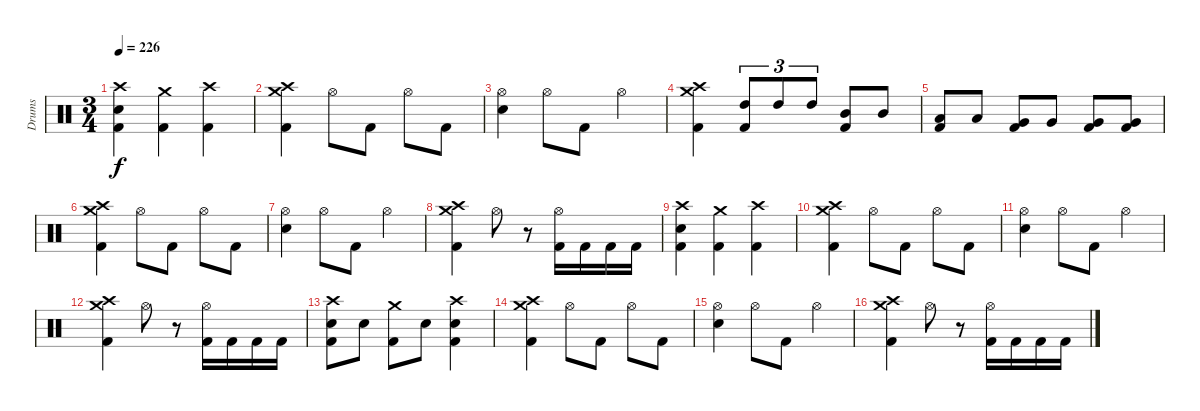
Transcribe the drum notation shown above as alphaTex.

\track ("Drums" "Drums") {instrument percussion}
\staff {score}
\articulation defaults
\ts (3 4)
\tempo 226
\clef neutral
\ks c
("Crash high (hit)" "Electric Snare (hit)" "Kick (hit) 2").4{dy f} ("Crash medium (hit)" "Kick (hit) 2").4 ("Crash high (hit)" "Kick (hit) 2").4 |
("Crash high (hit)" "Crash medium (hit)" "Kick (hit) 2").4 "Hi-Hat (open)".8 "Kick (hit) 2".8 "Hi-Hat (open)".8 "Kick (hit) 2".8 |
("Hi-Hat (open)" "Electric Snare (hit)").4 "Hi-Hat (open)".8 "Kick (hit) 2".8 "Hi-Hat (open)".4 |
("Crash high (hit)" "Crash medium (hit)" "Kick (hit) 2").4 ("High Tom (hit)" "Kick (hit) 2").8{tu (3 2)} "High Tom (hit)".8{tu (3 2)} "High Tom (hit)".8{tu (3 2)} ("Mid Tom (hit)" "Kick (hit) 2").8 "Mid Tom (hit)".8 |
("Low Tom (hit)" "Kick (hit) 2").8 "Low Tom (hit)".8 ("Very Low Tom (hit)" "Kick (hit) 2").8 "Very Low Tom (hit)".8 ("Very Low Tom (hit)" "Kick (hit) 2").8 ("Very Low Tom (hit)" "Kick (hit) 2").8 |
("Crash high (hit)" "Crash medium (hit)" "Kick (hit) 2").4 "Hi-Hat (open)".8 "Kick (hit) 2".8 "Hi-Hat (open)".8 "Kick (hit) 2".8 |
("Hi-Hat (open)" "Electric Snare (hit)").4 "Hi-Hat (open)".8 "Kick (hit) 2".8 "Hi-Hat (open)".4 |
("Crash high (hit)" "Crash medium (hit)" "Kick (hit) 2").4 "Hi-Hat (open)".8 r.8 ("Hi-Hat (open)" "Kick (hit) 2").16 "Kick (hit) 2".16 "Kick (hit) 2".16 "Kick (hit) 2".16 |
("Crash high (hit)" "Electric Snare (hit)" "Kick (hit) 2").4 ("Crash medium (hit)" "Kick (hit) 2").4 ("Crash high (hit)" "Kick (hit) 2").4 |
("Crash high (hit)" "Crash medium (hit)" "Kick (hit) 2").4 "Hi-Hat (open)".8 "Kick (hit) 2".8 "Hi-Hat (open)".8 "Kick (hit) 2".8 |
("Hi-Hat (open)" "Electric Snare (hit)").4 "Hi-Hat (open)".8 "Kick (hit) 2".8 "Hi-Hat (open)".4 |
("Crash high (hit)" "Crash medium (hit)" "Kick (hit) 2").4 "Hi-Hat (open)".8 r.8 ("Hi-Hat (open)" "Kick (hit) 2").16 "Kick (hit) 2".16 "Kick (hit) 2".16 "Kick (hit) 2".16 |
("Crash high (hit)" "Electric Snare (hit)" "Kick (hit) 2").8 "Electric Snare (hit)".8 ("Crash medium (hit)" "Kick (hit) 2").8 "Electric Snare (hit)".8 ("Crash high (hit)" "Electric Snare (hit)" "Kick (hit) 2").4 |
("Crash high (hit)" "Crash medium (hit)" "Kick (hit) 2").4 "Hi-Hat (open)".8 "Kick (hit) 2".8 "Hi-Hat (open)".8 "Kick (hit) 2".8 |
("Hi-Hat (open)" "Electric Snare (hit)").4 "Hi-Hat (open)".8 "Kick (hit) 2".8 "Hi-Hat (open)".4 |
("Crash high (hit)" "Crash medium (hit)" "Kick (hit) 2").4 "Hi-Hat (open)".8 r.8 ("Hi-Hat (open)" "Kick (hit) 2").16 "Kick (hit) 2".16 "Kick (hit) 2".16 "Kick (hit) 2".16
